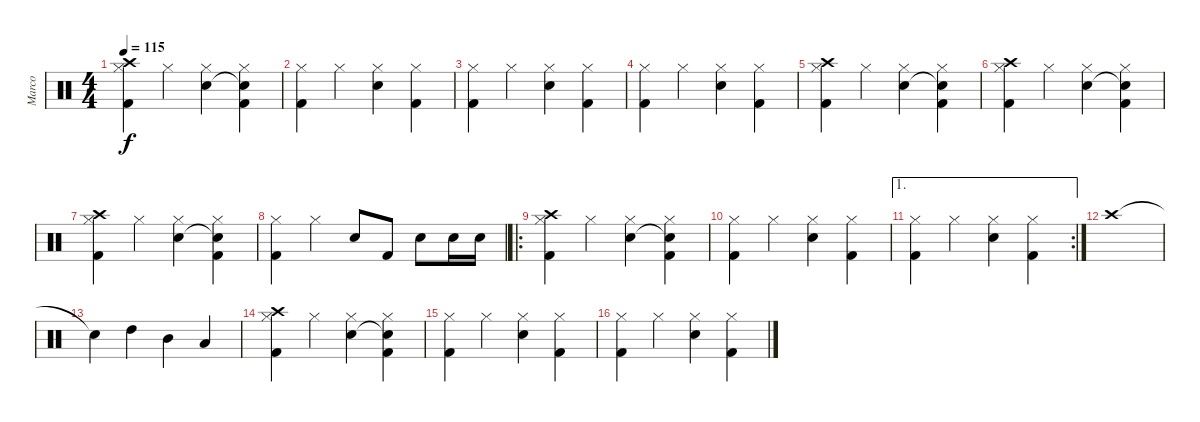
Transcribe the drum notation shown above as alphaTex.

\track ("Marco" "Marco") {instrument percussion}
\staff {score}
\articulation defaults
\ts (4 4)
\tempo 115
\clef neutral
\ks c
("Hi-Hat (closed)" "Crash high (hit)" "Kick (hit) 2").4{dy f} "Hi-Hat (closed)".4 ("Hi-Hat (closed)" "Snare (hit) 2").4 ("Hi-Hat (closed)" "Snare (hit)"{t} "Kick (hit) 2").4 |
("Hi-Hat (closed)" "Kick (hit) 2").4 "Hi-Hat (closed)".4 ("Hi-Hat (closed)" "Snare (hit) 2").4 ("Hi-Hat (closed)" "Kick (hit) 2").4 |
("Hi-Hat (closed)" "Kick (hit) 2").4 "Hi-Hat (closed)".4 ("Hi-Hat (closed)" "Snare (hit) 2").4 ("Hi-Hat (closed)" "Kick (hit) 2").4 |
("Hi-Hat (closed)" "Kick (hit) 2").4 "Hi-Hat (closed)".4 ("Hi-Hat (closed)" "Snare (hit) 2").4 ("Hi-Hat (closed)" "Kick (hit) 2").4 |
("Hi-Hat (closed)" "Crash high (hit)" "Kick (hit) 2").4 "Hi-Hat (closed)".4 ("Hi-Hat (closed)" "Snare (hit) 2").4 ("Hi-Hat (closed)" "Snare (hit)"{t} "Kick (hit) 2").4 |
("Hi-Hat (closed)" "Crash high (hit)" "Kick (hit) 2").4 "Hi-Hat (closed)".4 ("Hi-Hat (closed)" "Snare (hit) 2").4 ("Hi-Hat (closed)" "Snare (hit)"{t} "Kick (hit) 2").4 |
("Hi-Hat (closed)" "Crash high (hit)" "Kick (hit) 2").4 "Hi-Hat (closed)".4 ("Hi-Hat (closed)" "Snare (hit) 2").4 ("Hi-Hat (closed)" "Snare (hit)"{t} "Kick (hit) 2").4 |
("Hi-Hat (closed)" "Kick (hit) 2").4 "Hi-Hat (closed)".4 "Snare (hit) 2".8 "Kick (hit) 2".8 "Snare (hit) 2".8 "Snare (hit) 2".16 "Snare (hit) 2".16 |
\ro
("Hi-Hat (closed)" "Crash high (hit)" "Kick (hit) 2").4 "Hi-Hat (closed)".4 ("Hi-Hat (closed)" "Snare (hit) 2").4 ("Hi-Hat (closed)" "Snare (hit)"{t} "Kick (hit) 2").4 |
("Hi-Hat (closed)" "Kick (hit) 2").4 "Hi-Hat (closed)".4 ("Hi-Hat (closed)" "Snare (hit) 2").4 ("Hi-Hat (closed)" "Kick (hit) 2").4 |
\ae 1
\rc 2
("Hi-Hat (closed)" "Kick (hit) 2").4 "Hi-Hat (closed)".4 ("Hi-Hat (closed)" "Snare (hit) 2").4 ("Hi-Hat (closed)" "Kick (hit) 2").4 |
"Crash high (hit)".1 |
"Snare (hit)"{t}.4 "High Tom (hit)".4 "Mid Tom (hit)".4 "Low Tom (hit)".4 |
("Hi-Hat (closed)" "Crash high (hit)" "Kick (hit) 2").4 "Hi-Hat (closed)".4 ("Hi-Hat (closed)" "Snare (hit) 2").4 ("Hi-Hat (closed)" "Snare (hit)"{t} "Kick (hit) 2").4 |
("Hi-Hat (closed)" "Kick (hit) 2").4 "Hi-Hat (closed)".4 ("Hi-Hat (closed)" "Snare (hit) 2").4 ("Hi-Hat (closed)" "Kick (hit) 2").4 |
("Hi-Hat (closed)" "Kick (hit) 2").4 "Hi-Hat (closed)".4 ("Hi-Hat (closed)" "Snare (hit) 2").4 ("Hi-Hat (closed)" "Kick (hit) 2").4
